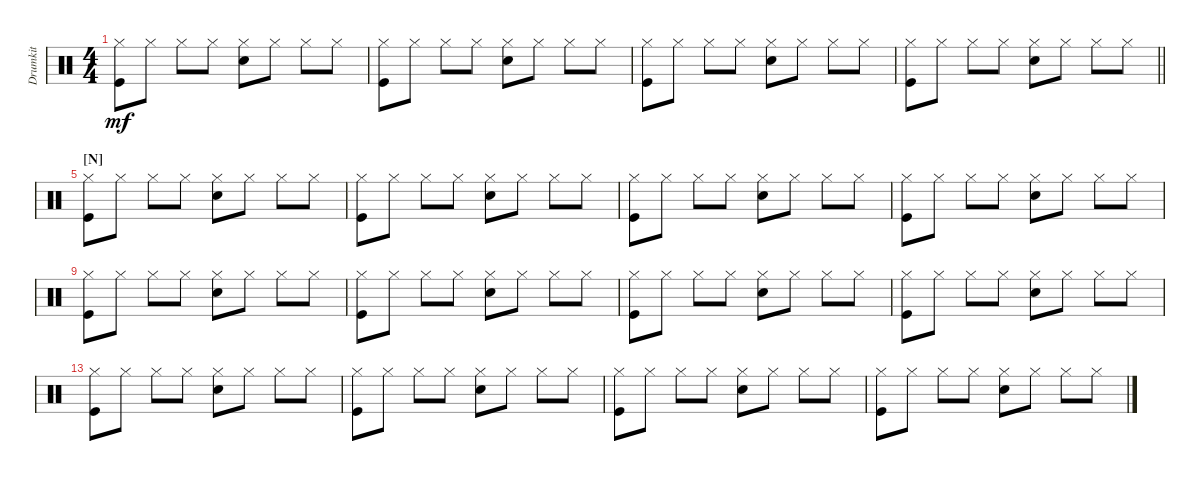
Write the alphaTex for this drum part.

\bracketExtendMode groupsimilarinstruments
\multiTrackTrackNamePolicy hidden
\firstSystemTrackNameMode fullname
\otherSystemsTrackNameMode fullname
\otherSystemsTrackNameOrientation horizontal
\defaultBarNumberDisplay FirstOfSystem
\track ("Drumkit" "Drums") {multiBarRest instrument percussion}
\staff {score}
\articulation defaults
\ts (4 4)
\tempo (150 hide)
\clef neutral
\ks c
("Hi-Hat (closed)" "Kick (hit)").8{dy mf} "Hi-Hat (closed)".8 "Hi-Hat (closed)".8 "Hi-Hat (closed)".8 ("Hi-Hat (closed)" "Snare (hit) 2").8 "Hi-Hat (closed)".8 "Hi-Hat (closed)".8 "Hi-Hat (closed)".8 |
("Hi-Hat (closed)" "Kick (hit)").8 "Hi-Hat (closed)".8 "Hi-Hat (closed)".8 "Hi-Hat (closed)".8 ("Hi-Hat (closed)" "Snare (hit) 2").8 "Hi-Hat (closed)".8 "Hi-Hat (closed)".8 "Hi-Hat (closed)".8 |
("Hi-Hat (closed)" "Kick (hit)").8 "Hi-Hat (closed)".8 "Hi-Hat (closed)".8 "Hi-Hat (closed)".8 ("Hi-Hat (closed)" "Snare (hit) 2").8 "Hi-Hat (closed)".8 "Hi-Hat (closed)".8 "Hi-Hat (closed)".8 |
\barLineRight lightlight
("Hi-Hat (closed)" "Kick (hit)").8 "Hi-Hat (closed)".8 "Hi-Hat (closed)".8 "Hi-Hat (closed)".8 ("Hi-Hat (closed)" "Snare (hit) 2").8 "Hi-Hat (closed)".8 "Hi-Hat (closed)".8 "Hi-Hat (closed)".8 |
\section ("N" "")
("Hi-Hat (closed)" "Kick (hit)").8 "Hi-Hat (closed)".8 "Hi-Hat (closed)".8 "Hi-Hat (closed)".8 ("Hi-Hat (closed)" "Snare (hit) 2").8 "Hi-Hat (closed)".8 "Hi-Hat (closed)".8 "Hi-Hat (closed)".8 |
("Hi-Hat (closed)" "Kick (hit)").8 "Hi-Hat (closed)".8 "Hi-Hat (closed)".8 "Hi-Hat (closed)".8 ("Hi-Hat (closed)" "Snare (hit) 2").8 "Hi-Hat (closed)".8 "Hi-Hat (closed)".8 "Hi-Hat (closed)".8 |
("Hi-Hat (closed)" "Kick (hit)").8 "Hi-Hat (closed)".8 "Hi-Hat (closed)".8 "Hi-Hat (closed)".8 ("Hi-Hat (closed)" "Snare (hit) 2").8 "Hi-Hat (closed)".8 "Hi-Hat (closed)".8 "Hi-Hat (closed)".8 |
("Hi-Hat (closed)" "Kick (hit)").8 "Hi-Hat (closed)".8 "Hi-Hat (closed)".8 "Hi-Hat (closed)".8 ("Hi-Hat (closed)" "Snare (hit) 2").8 "Hi-Hat (closed)".8 "Hi-Hat (closed)".8 "Hi-Hat (closed)".8 |
("Hi-Hat (closed)" "Kick (hit)").8 "Hi-Hat (closed)".8 "Hi-Hat (closed)".8 "Hi-Hat (closed)".8 ("Hi-Hat (closed)" "Snare (hit) 2").8 "Hi-Hat (closed)".8 "Hi-Hat (closed)".8 "Hi-Hat (closed)".8 |
("Hi-Hat (closed)" "Kick (hit)").8 "Hi-Hat (closed)".8 "Hi-Hat (closed)".8 "Hi-Hat (closed)".8 ("Hi-Hat (closed)" "Snare (hit) 2").8 "Hi-Hat (closed)".8 "Hi-Hat (closed)".8 "Hi-Hat (closed)".8 |
("Hi-Hat (closed)" "Kick (hit)").8 "Hi-Hat (closed)".8 "Hi-Hat (closed)".8 "Hi-Hat (closed)".8 ("Hi-Hat (closed)" "Snare (hit) 2").8 "Hi-Hat (closed)".8 "Hi-Hat (closed)".8 "Hi-Hat (closed)".8 |
("Hi-Hat (closed)" "Kick (hit)").8 "Hi-Hat (closed)".8 "Hi-Hat (closed)".8 "Hi-Hat (closed)".8 ("Hi-Hat (closed)" "Snare (hit) 2").8 "Hi-Hat (closed)".8 "Hi-Hat (closed)".8 "Hi-Hat (closed)".8 |
("Hi-Hat (closed)" "Kick (hit)").8 "Hi-Hat (closed)".8 "Hi-Hat (closed)".8 "Hi-Hat (closed)".8 ("Hi-Hat (closed)" "Snare (hit) 2").8 "Hi-Hat (closed)".8 "Hi-Hat (closed)".8 "Hi-Hat (closed)".8 |
("Hi-Hat (closed)" "Kick (hit)").8 "Hi-Hat (closed)".8 "Hi-Hat (closed)".8 "Hi-Hat (closed)".8 ("Hi-Hat (closed)" "Snare (hit) 2").8 "Hi-Hat (closed)".8 "Hi-Hat (closed)".8 "Hi-Hat (closed)".8 |
("Hi-Hat (closed)" "Kick (hit)").8 "Hi-Hat (closed)".8 "Hi-Hat (closed)".8 "Hi-Hat (closed)".8 ("Hi-Hat (closed)" "Snare (hit) 2").8 "Hi-Hat (closed)".8 "Hi-Hat (closed)".8 "Hi-Hat (closed)".8 |
("Hi-Hat (closed)" "Kick (hit)").8 "Hi-Hat (closed)".8 "Hi-Hat (closed)".8 "Hi-Hat (closed)".8 ("Hi-Hat (closed)" "Snare (hit) 2").8 "Hi-Hat (closed)".8 "Hi-Hat (closed)".8 "Hi-Hat (closed)".8
